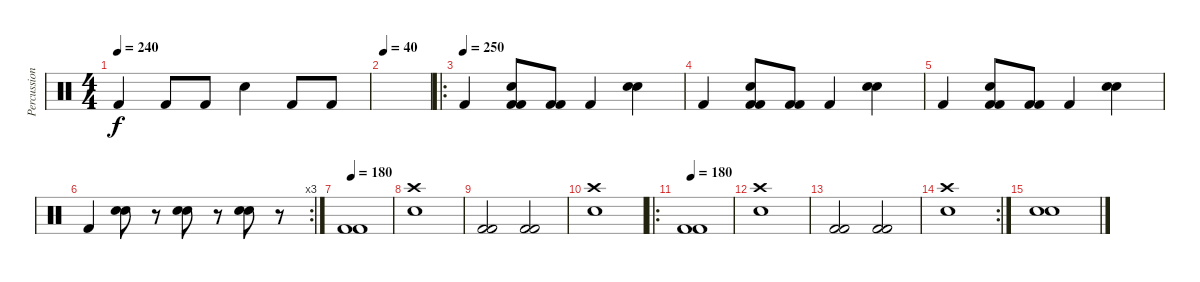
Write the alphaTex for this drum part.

\track ("Percussions" "Percussion") {instrument percussion}
\staff {score}
\articulation defaults
\ts (4 4)
\tempo 240
\clef neutral
\ks c "Kick (hit) 2".4{dy f} "Kick (hit) 2".8 "Kick (hit) 2".8 "Electric Snare (hit)".4 "Kick (hit) 2".8 "Kick (hit) 2".8
|
\tempo 40
|
\ro
\tempo (250)
"Kick (hit) 2".4 ("Electric Snare (hit)" "Kick (hit) 2" "Kick (hit) 2").8 ("Kick (hit) 2" "Kick (hit) 2").8 "Kick (hit) 2".4 ("Hand Clap (hit)" "Snare (hit) 2").4 |
"Kick (hit) 2".4 ("Electric Snare (hit)" "Kick (hit) 2" "Kick (hit) 2").8 ("Kick (hit) 2" "Kick (hit) 2").8 "Kick (hit) 2".4 ("Hand Clap (hit)" "Snare (hit) 2").4 |
"Kick (hit) 2".4 ("Electric Snare (hit)" "Kick (hit) 2" "Kick (hit) 2").8 ("Kick (hit) 2" "Kick (hit) 2").8 "Kick (hit) 2".4 ("Hand Clap (hit)" "Snare (hit) 2").4 |
\rc 3 "Kick (hit) 2".4
("Hand Clap (hit)" "Hand Clap (hit)").8 r.8 ("Hand Clap (hit)" "Hand Clap (hit)").8 r.8 ("Hand Clap (hit)" "Hand Clap (hit)").8 r.8 |
\tempo 180
("Kick (hit) 2" "Kick (hit) 2").1 |
("Crash high (hit)" "Snare (hit) 2").1 |
("Kick (hit) 2" "Kick (hit) 2").2 ("Kick (hit) 2" "Kick (hit) 2").2 |
("Crash high (hit)" "Snare (hit) 2").1 |
\ro
\tempo 180
("Kick (hit) 2" "Kick (hit) 2").1 |
("Crash high (hit)" "Snare (hit) 2").1 |
("Kick (hit) 2" "Kick (hit) 2").2 ("Kick (hit) 2" "Kick (hit) 2").2 |
\rc 2
("Crash high (hit)" "Snare (hit) 2").1 |
("Electric Snare (hit)" "Snare (hit) 2").1
